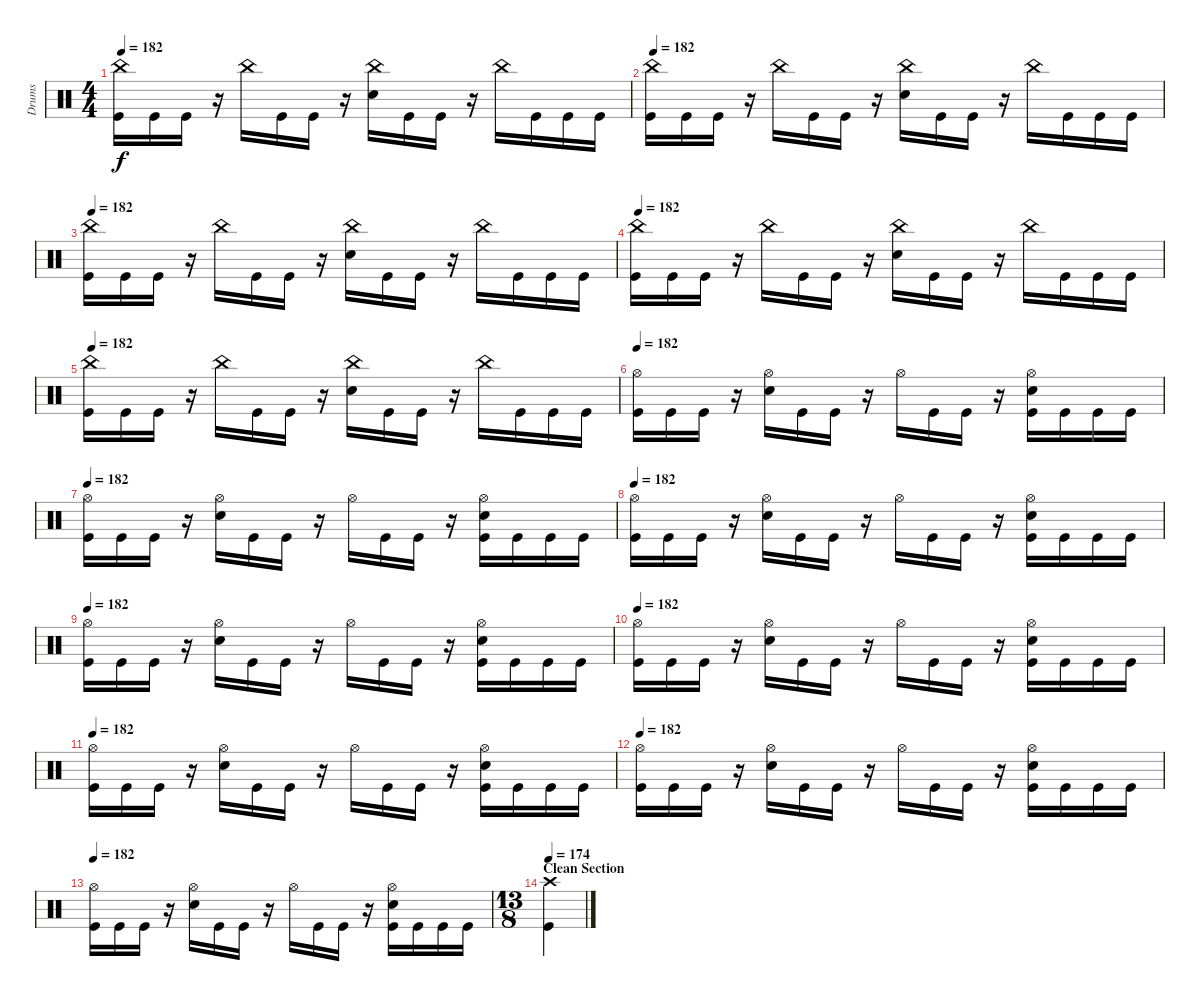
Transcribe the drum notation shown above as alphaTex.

\track ("Drums" "Drums") {instrument percussion}
\staff {score}
\articulation defaults
\ts (4 4)
\tempo 182
\clef neutral
\ks c
("China (hit)" "Kick (hit)").16{dy f} "Kick (hit)".16 "Kick (hit)".16 r.16 "China (hit)".16 "Kick (hit)".16 "Kick (hit)".16 r.16 ("China (hit)" "Electric Snare (hit)").16 "Kick (hit)".16 "Kick (hit)".16 r.16 "China (hit)".16 "Kick (hit)".16 "Kick (hit)".16 "Kick (hit)".16 |
\tempo 182
("China (hit)" "Kick (hit)").16 "Kick (hit)".16 "Kick (hit)".16 r.16 "China (hit)".16 "Kick (hit)".16 "Kick (hit)".16 r.16 ("China (hit)" "Electric Snare (hit)").16 "Kick (hit)".16 "Kick (hit)".16 r.16 "China (hit)".16 "Kick (hit)".16 "Kick (hit)".16 "Kick (hit)".16 |
\tempo 182
("China (hit)" "Kick (hit)").16 "Kick (hit)".16 "Kick (hit)".16 r.16 "China (hit)".16 "Kick (hit)".16 "Kick (hit)".16 r.16 ("China (hit)" "Electric Snare (hit)").16 "Kick (hit)".16 "Kick (hit)".16 r.16 "China (hit)".16 "Kick (hit)".16 "Kick (hit)".16 "Kick (hit)".16 |
\tempo 182
("China (hit)" "Kick (hit)").16 "Kick (hit)".16 "Kick (hit)".16 r.16 "China (hit)".16 "Kick (hit)".16 "Kick (hit)".16 r.16 ("China (hit)" "Electric Snare (hit)").16 "Kick (hit)".16 "Kick (hit)".16 r.16 "China (hit)".16 "Kick (hit)".16 "Kick (hit)".16 "Kick (hit)".16 |
\tempo 182
("China (hit)" "Kick (hit)").16 "Kick (hit)".16 "Kick (hit)".16 r.16 "China (hit)".16 "Kick (hit)".16 "Kick (hit)".16 r.16 ("China (hit)" "Electric Snare (hit)").16 "Kick (hit)".16 "Kick (hit)".16 r.16 "China (hit)".16 "Kick (hit)".16 "Kick (hit)".16 "Kick (hit)".16 |
\tempo 182
("Hi-Hat (open)" "Kick (hit)").16 "Kick (hit)".16 "Kick (hit)".16 r.16 ("Hi-Hat (open)" "Electric Snare (hit)").16 "Kick (hit)".16 "Kick (hit)".16 r.16 "Hi-Hat (open)".16 "Kick (hit)".16 "Kick (hit)".16 r.16 ("Hi-Hat (open)" "Electric Snare (hit)" "Kick (hit)").16 "Kick (hit)".16 "Kick (hit)".16 "Kick (hit)".16 |
\tempo 182
("Hi-Hat (open)" "Kick (hit)").16 "Kick (hit)".16 "Kick (hit)".16 r.16 ("Hi-Hat (open)" "Electric Snare (hit)").16 "Kick (hit)".16 "Kick (hit)".16 r.16 "Hi-Hat (open)".16 "Kick (hit)".16 "Kick (hit)".16 r.16 ("Hi-Hat (open)" "Electric Snare (hit)" "Kick (hit)").16 "Kick (hit)".16 "Kick (hit)".16 "Kick (hit)".16 |
\tempo 182
("Hi-Hat (open)" "Kick (hit)").16 "Kick (hit)".16 "Kick (hit)".16 r.16 ("Hi-Hat (open)" "Electric Snare (hit)").16 "Kick (hit)".16 "Kick (hit)".16 r.16 "Hi-Hat (open)".16 "Kick (hit)".16 "Kick (hit)".16 r.16 ("Hi-Hat (open)" "Electric Snare (hit)" "Kick (hit)").16 "Kick (hit)".16 "Kick (hit)".16 "Kick (hit)".16 |
\tempo 182
("Hi-Hat (open)" "Kick (hit)").16 "Kick (hit)".16 "Kick (hit)".16 r.16 ("Hi-Hat (open)" "Electric Snare (hit)").16 "Kick (hit)".16 "Kick (hit)".16 r.16 "Hi-Hat (open)".16 "Kick (hit)".16 "Kick (hit)".16 r.16 ("Hi-Hat (open)" "Electric Snare (hit)" "Kick (hit)").16 "Kick (hit)".16 "Kick (hit)".16 "Kick (hit)".16 |
\tempo 182
("Hi-Hat (open)" "Kick (hit)").16 "Kick (hit)".16 "Kick (hit)".16 r.16 ("Hi-Hat (open)" "Electric Snare (hit)").16 "Kick (hit)".16 "Kick (hit)".16 r.16 "Hi-Hat (open)".16 "Kick (hit)".16 "Kick (hit)".16 r.16 ("Hi-Hat (open)" "Electric Snare (hit)" "Kick (hit)").16 "Kick (hit)".16 "Kick (hit)".16 "Kick (hit)".16 |
\tempo 182
("Hi-Hat (open)" "Kick (hit)").16 "Kick (hit)".16 "Kick (hit)".16 r.16 ("Hi-Hat (open)" "Electric Snare (hit)").16 "Kick (hit)".16 "Kick (hit)".16 r.16 "Hi-Hat (open)".16 "Kick (hit)".16 "Kick (hit)".16 r.16 ("Hi-Hat (open)" "Electric Snare (hit)" "Kick (hit)").16 "Kick (hit)".16 "Kick (hit)".16 "Kick (hit)".16 |
\tempo 182
("Hi-Hat (open)" "Kick (hit)").16 "Kick (hit)".16 "Kick (hit)".16 r.16 ("Hi-Hat (open)" "Electric Snare (hit)").16 "Kick (hit)".16 "Kick (hit)".16 r.16 "Hi-Hat (open)".16 "Kick (hit)".16 "Kick (hit)".16 r.16 ("Hi-Hat (open)" "Electric Snare (hit)" "Kick (hit)").16 "Kick (hit)".16 "Kick (hit)".16 "Kick (hit)".16 |
\tempo 182
("Hi-Hat (open)" "Kick (hit)").16 "Kick (hit)".16 "Kick (hit)".16 r.16 ("Hi-Hat (open)" "Electric Snare (hit)").16 "Kick (hit)".16 "Kick (hit)".16 r.16 "Hi-Hat (open)".16 "Kick (hit)".16 "Kick (hit)".16 r.16 ("Hi-Hat (open)" "Electric Snare (hit)" "Kick (hit)").16 "Kick (hit)".16 "Kick (hit)".16 "Kick (hit)".16 |
\ts (13 8)
\section ("" "Clean Section")
\tempo 174
("Crash high (hit)" "Kick (hit)").4
